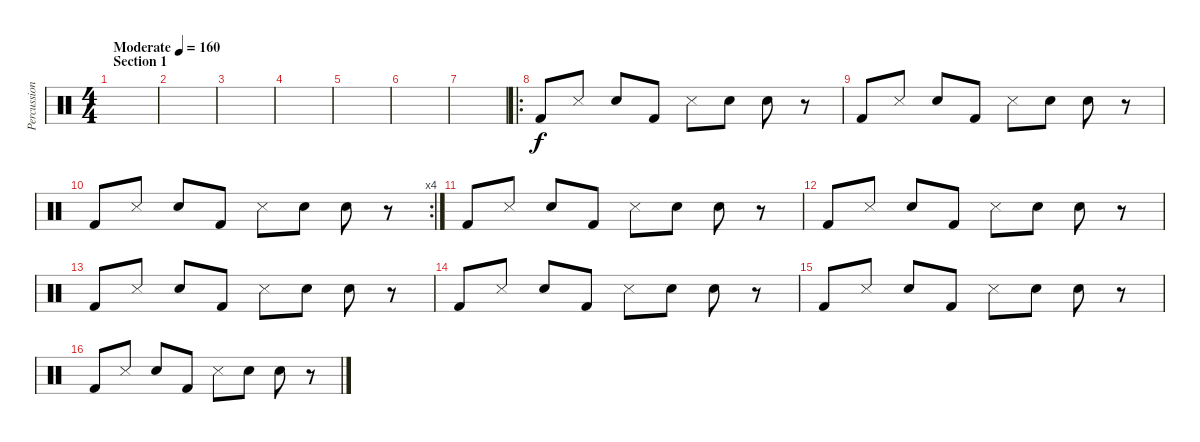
\track ("Percussion" "Percussion") {instrument percussion}
\staff {score}
\articulation defaults
\ts (4 4)
\section ("" "Section 1")
\tempo (160 "Moderate")
\clef neutral
\ks c
|
|
|
|
|
|
|
\ro "Kick (hit) 2".8 "Snare (side stick) 3".8 "Hand Clap (hit)".8 "Kick (hit) 2".8 "Snare (side stick) 3".8 "Snare (hit) 2".8 "Hand Clap (hit)".8
r.8 |
"Kick (hit) 2".8 "Snare (side stick) 3".8 "Hand Clap (hit)".8 "Kick (hit) 2".8 "Snare (side stick) 3".8 "Snare (hit) 2".8 "Hand Clap (hit)".8 r.8 |
\rc 4 "Kick (hit) 2".8 "Snare (side stick) 3".8 "Hand Clap (hit)".8 "Kick (hit) 2".8 "Snare (side stick) 3".8 "Snare (hit) 2".8 "Hand Clap (hit)".8
r.8 |
"Kick (hit) 2".8 "Snare (side stick) 3".8 "Hand Clap (hit)".8 "Kick (hit) 2".8 "Snare (side stick) 3".8 "Snare (hit) 2".8 "Hand Clap (hit)".8 r.8 |
"Kick (hit) 2".8 "Snare (side stick) 3".8 "Hand Clap (hit)".8 "Kick (hit) 2".8 "Snare (side stick) 3".8 "Snare (hit) 2".8 "Hand Clap (hit)".8 r.8 |
"Kick (hit) 2".8 "Snare (side stick) 3".8 "Hand Clap (hit)".8 "Kick (hit) 2".8 "Snare (side stick) 3".8 "Snare (hit) 2".8 "Hand Clap (hit)".8 r.8 |
"Kick (hit) 2".8 "Snare (side stick) 3".8 "Hand Clap (hit)".8 "Kick (hit) 2".8 "Snare (side stick) 3".8 "Snare (hit) 2".8 "Hand Clap (hit)".8 r.8 |
"Kick (hit) 2".8 "Snare (side stick) 3".8 "Hand Clap (hit)".8 "Kick (hit) 2".8 "Snare (side stick) 3".8 "Snare (hit) 2".8 "Hand Clap (hit)".8 r.8 |
"Kick (hit) 2".8 "Snare (side stick) 3".8 "Hand Clap (hit)".8 "Kick (hit) 2".8 "Snare (side stick) 3".8 "Snare (hit) 2".8 "Hand Clap (hit)".8 r.8
